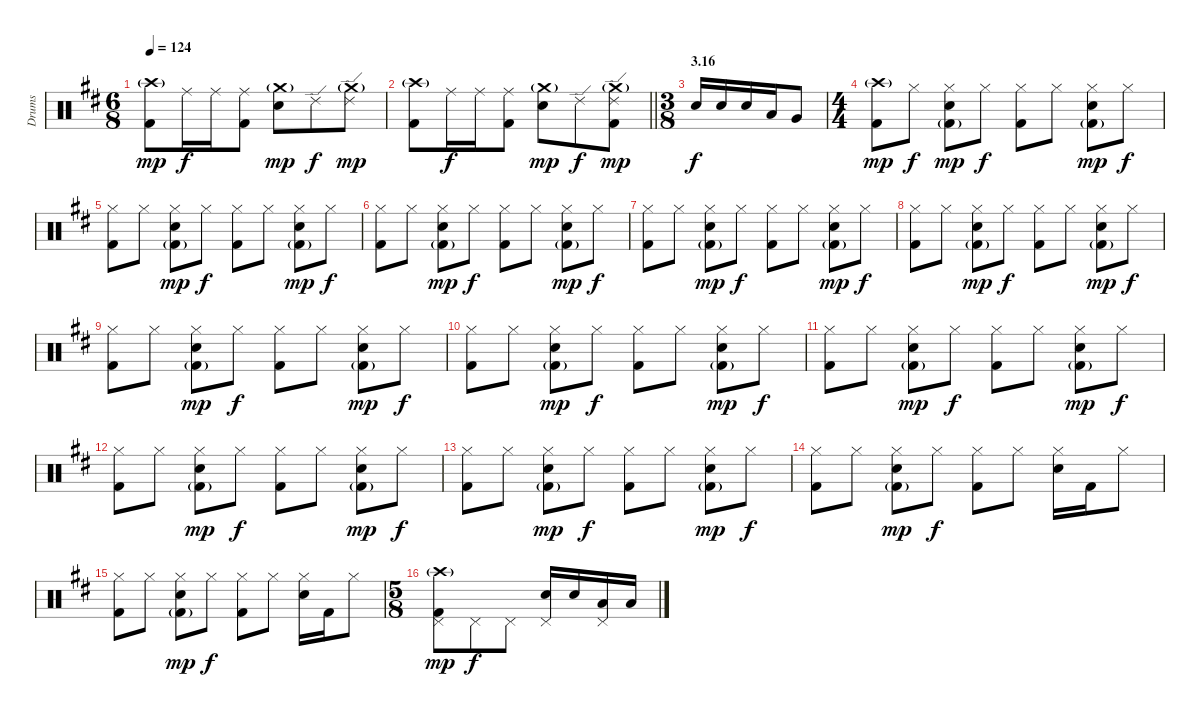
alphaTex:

\track ("Drums" "Drums") {instrument percussion}
\staff {score}
\articulation defaults
\ts (6 8)
\tempo 124
\clef neutral
\ks d
("Crash high (hit)"{g} "Kick (hit) 2").8{dy mp} "Ride (middle)".16{dy f} "Ride (middle)".16 ("Ride (middle)" "Kick (hit) 2").8 ("Crash medium (hit)"{g} "Electric Snare (hit)").8{dy mp} "Ride (edge) 2".8{dy f} ("Crash medium (hit)"{g} "Ride (edge) 2").8{dy mp} |
\barLineRight lightlight
("Crash high (hit)"{g} "Kick (hit) 2").8 "Ride (middle)".16{dy f} "Ride (middle)".16 ("Ride (middle)" "Kick (hit) 2").8 ("Crash medium (hit)"{g} "Electric Snare (hit)").8{dy mp} "Ride (edge) 2".8{dy f} ("Crash medium (hit)"{g} "Ride (edge) 2" "Kick (hit) 2").8{dy mp} |
\ts (3 8)
\section ("" "3.16")
"Electric Snare (hit)".16{dy f} "Electric Snare (hit)".16 "Electric Snare (hit)".16 "Low Tom (hit)".16 "Very Low Tom (hit)".8 |
\ts (4 4)
("Crash high (hit)"{g} "Kick (hit) 2").8{dy mp} "Hi-Hat (closed)".8{dy f} ("Hi-Hat (closed)" "Electric Snare (hit)" "Kick (hit) 2"{g}).8{dy mp} "Hi-Hat (closed)".8{dy f} ("Hi-Hat (closed)" "Kick (hit) 2").8 "Hi-Hat (closed)".8 ("Hi-Hat (closed)" "Electric Snare (hit)" "Kick (hit) 2"{g}).8{dy mp} "Hi-Hat (closed)".8{dy f} |
("Hi-Hat (closed)" "Kick (hit) 2").8 "Hi-Hat (closed)".8 ("Hi-Hat (closed)" "Electric Snare (hit)" "Kick (hit) 2"{g}).8{dy mp} "Hi-Hat (closed)".8{dy f} ("Hi-Hat (closed)" "Kick (hit) 2").8 "Hi-Hat (closed)".8 ("Hi-Hat (closed)" "Electric Snare (hit)" "Kick (hit) 2"{g}).8{dy mp} "Hi-Hat (closed)".8{dy f} |
("Hi-Hat (closed)" "Kick (hit) 2").8 "Hi-Hat (closed)".8 ("Hi-Hat (closed)" "Electric Snare (hit)" "Kick (hit) 2"{g}).8{dy mp} "Hi-Hat (closed)".8{dy f} ("Hi-Hat (closed)" "Kick (hit) 2").8 "Hi-Hat (closed)".8 ("Hi-Hat (closed)" "Electric Snare (hit)" "Kick (hit) 2"{g}).8{dy mp} "Hi-Hat (closed)".8{dy f} |
("Hi-Hat (closed)" "Kick (hit) 2").8 "Hi-Hat (closed)".8 ("Hi-Hat (closed)" "Electric Snare (hit)" "Kick (hit) 2"{g}).8{dy mp} "Hi-Hat (closed)".8{dy f} ("Hi-Hat (closed)" "Kick (hit) 2").8 "Hi-Hat (closed)".8 ("Hi-Hat (closed)" "Electric Snare (hit)" "Kick (hit) 2"{g}).8{dy mp} "Hi-Hat (closed)".8{dy f} |
("Hi-Hat (closed)" "Kick (hit) 2").8 "Hi-Hat (closed)".8 ("Hi-Hat (closed)" "Electric Snare (hit)" "Kick (hit) 2"{g}).8{dy mp} "Hi-Hat (closed)".8{dy f} ("Hi-Hat (closed)" "Kick (hit) 2").8 "Hi-Hat (closed)".8 ("Hi-Hat (closed)" "Electric Snare (hit)" "Kick (hit) 2"{g}).8{dy mp} "Hi-Hat (closed)".8{dy f} |
("Hi-Hat (closed)" "Kick (hit) 2").8 "Hi-Hat (closed)".8 ("Hi-Hat (closed)" "Electric Snare (hit)" "Kick (hit) 2"{g}).8{dy mp} "Hi-Hat (closed)".8{dy f} ("Hi-Hat (closed)" "Kick (hit) 2").8 "Hi-Hat (closed)".8 ("Hi-Hat (closed)" "Electric Snare (hit)" "Kick (hit) 2"{g}).8{dy mp} "Hi-Hat (closed)".8{dy f} |
("Hi-Hat (closed)" "Kick (hit) 2").8 "Hi-Hat (closed)".8 ("Hi-Hat (closed)" "Electric Snare (hit)" "Kick (hit) 2"{g}).8{dy mp} "Hi-Hat (closed)".8{dy f} ("Hi-Hat (closed)" "Kick (hit) 2").8 "Hi-Hat (closed)".8 ("Hi-Hat (closed)" "Electric Snare (hit)" "Kick (hit) 2"{g}).8{dy mp} "Hi-Hat (closed)".8{dy f} |
("Hi-Hat (closed)" "Kick (hit) 2").8 "Hi-Hat (closed)".8 ("Hi-Hat (closed)" "Electric Snare (hit)" "Kick (hit) 2"{g}).8{dy mp} "Hi-Hat (closed)".8{dy f} ("Hi-Hat (closed)" "Kick (hit) 2").8 "Hi-Hat (closed)".8 ("Hi-Hat (closed)" "Electric Snare (hit)" "Kick (hit) 2"{g}).8{dy mp} "Hi-Hat (closed)".8{dy f} |
("Hi-Hat (closed)" "Kick (hit) 2").8 "Hi-Hat (closed)".8 ("Hi-Hat (closed)" "Electric Snare (hit)" "Kick (hit) 2"{g}).8{dy mp} "Hi-Hat (closed)".8{dy f} ("Hi-Hat (closed)" "Kick (hit) 2").8 "Hi-Hat (closed)".8 ("Hi-Hat (closed)" "Electric Snare (hit)" "Kick (hit) 2"{g}).8{dy mp} "Hi-Hat (closed)".8{dy f} |
("Hi-Hat (closed)" "Kick (hit) 2").8 "Hi-Hat (closed)".8 ("Hi-Hat (closed)" "Electric Snare (hit)" "Kick (hit) 2"{g}).8{dy mp} "Hi-Hat (closed)".8{dy f} ("Hi-Hat (closed)" "Kick (hit) 2").8 "Hi-Hat (closed)".8 ("Hi-Hat (closed)" "Electric Snare (hit)" "Kick (hit) 2"{g}).8{dy mp} "Hi-Hat (closed)".8{dy f} |
("Hi-Hat (closed)" "Kick (hit) 2").8 "Hi-Hat (closed)".8 ("Hi-Hat (closed)" "Electric Snare (hit)" "Kick (hit) 2"{g}).8{dy mp} "Hi-Hat (closed)".8{dy f} ("Hi-Hat (closed)" "Kick (hit) 2").8 "Hi-Hat (closed)".8 ("Hi-Hat (closed)" "Electric Snare (hit)").16 "Kick (hit) 2".16 "Hi-Hat (closed)".8 |
("Hi-Hat (closed)" "Kick (hit) 2").8 "Hi-Hat (closed)".8 ("Hi-Hat (closed)" "Electric Snare (hit)" "Kick (hit) 2"{g}).8{dy mp} "Hi-Hat (closed)".8{dy f} ("Hi-Hat (closed)" "Kick (hit) 2").8 "Hi-Hat (closed)".8 ("Hi-Hat (closed)" "Electric Snare (hit)").16 "Kick (hit) 2".16 "Hi-Hat (closed)".8 |
\ts (5 8)
("Crash high (hit)"{g} "Pedal Hi-Hat (hit)" "Kick (hit) 2").8{dy mp} "Pedal Hi-Hat (hit)".8{dy f} "Pedal Hi-Hat (hit)".8 ("Pedal Hi-Hat (hit)" "Electric Snare (hit)").16 "Electric Snare (hit)".16 ("Pedal Hi-Hat (hit)" "Low Tom (hit)").16 "Low Tom (hit)".16
